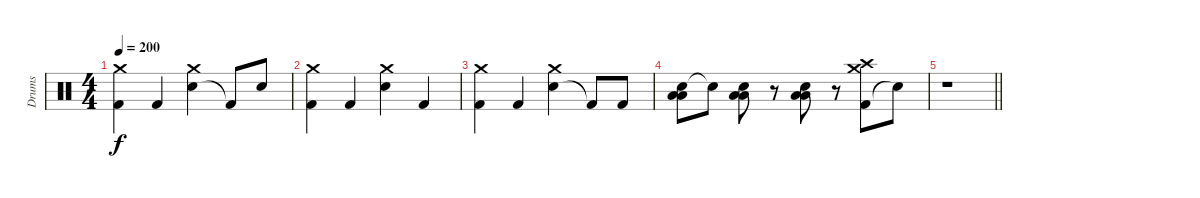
\track ("Drums" "Drums") {instrument percussion}
\staff {score}
\articulation defaults
\ts (4 4)
\tempo 200
\clef neutral
\ks c
("Kick (hit) 2" "Crash medium (hit)").4{dy f} "Kick (hit) 2".4 ("Electric Snare (hit)" "Crash medium (hit)").4 "Kick (hit) 2"{t}.8 "Electric Snare (hit)".8 |
("Kick (hit) 2" "Crash medium (hit)").4 "Kick (hit) 2".4 ("Electric Snare (hit)" "Crash medium (hit)").4 "Kick (hit) 2".4 |
("Kick (hit) 2" "Crash medium (hit)").4 "Kick (hit) 2".4 ("Electric Snare (hit)" "Crash medium (hit)").4 "Kick (hit) 2"{t}.8 "Kick (hit) 2".8 |
("Electric Snare (hit)" "Low Tom (hit)" "Low Floor Tom (hit)").8 "Electric Snare (hit)"{t}.8 ("Electric Snare (hit)" "Low Tom (hit)" "Low Floor Tom (hit)").8 r.8 ("Electric Snare (hit)" "Low Tom (hit)" "Low Floor Tom (hit)").8 r.8 ("Kick (hit) 2" "Crash medium (hit)" "Crash high (hit)").8 "Snare (hit)"{t}.8 |
\barLineRight lightlight
r.1
